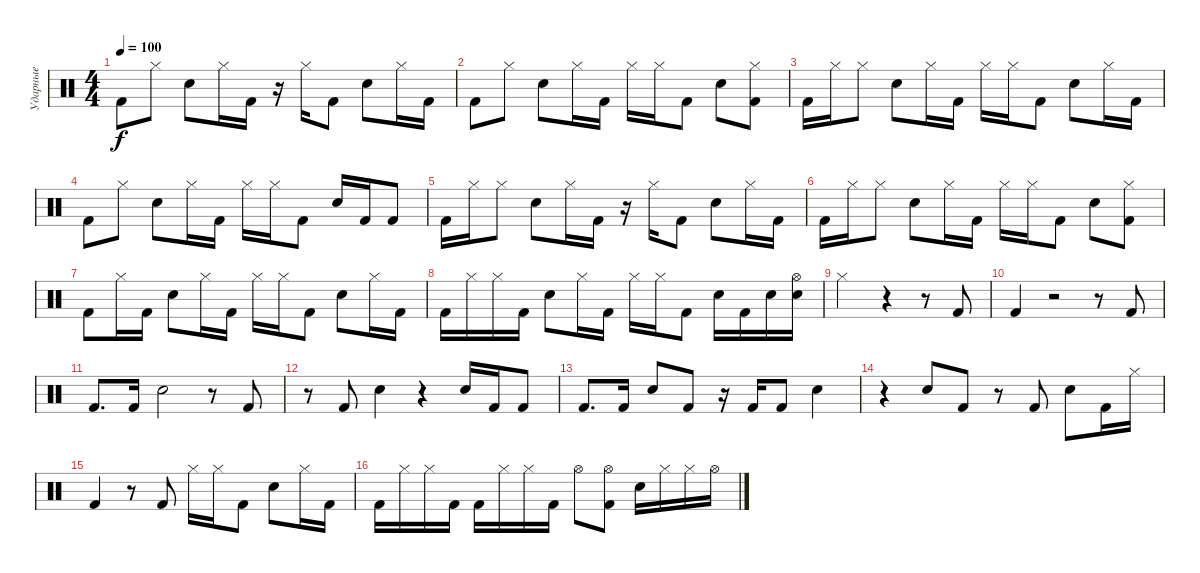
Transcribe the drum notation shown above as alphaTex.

\track ("Ударные" "Ударные") {instrument percussion}
\staff {score}
\articulation defaults
\ts (4 4)
\tempo 100
\clef neutral
\ks c "Kick (hit) 2".8{dy f} "Hi-Hat (closed)".8 "Electric Snare (hit)".8 "Hi-Hat (closed)".16 "Kick (hit) 2".16
r.16 "Hi-Hat (closed)".16 "Kick (hit) 2".8 "Electric Snare (hit)".8 "Hi-Hat (closed)".16 "Kick (hit) 2".16 |
"Kick (hit) 2".8 "Hi-Hat (closed)".8 "Electric Snare (hit)".8 "Hi-Hat (closed)".16 "Kick (hit) 2".16 "Hi-Hat (closed)".16 "Hi-Hat (closed)".16 "Kick (hit) 2".8 "Electric Snare (hit)".8 ("Kick (hit) 2" "Hi-Hat (closed)").8 |
"Kick (hit) 2".16 "Hi-Hat (closed)".16 "Hi-Hat (closed)".8 "Electric Snare (hit)".8 "Hi-Hat (closed)".16 "Kick (hit) 2".16 "Hi-Hat (closed)".16 "Hi-Hat (closed)".16 "Kick (hit) 2".8 "Electric Snare (hit)".8 "Hi-Hat (closed)".16 "Kick (hit) 2".16 |
"Kick (hit) 2".8 "Hi-Hat (closed)".8 "Electric Snare (hit)".8 "Hi-Hat (closed)".16 "Kick (hit) 2".16 "Hi-Hat (closed)".16 "Hi-Hat (closed)".16 "Kick (hit) 2".8 "Electric Snare (hit)".16 "Kick (hit) 2".16 "Kick (hit) 2".8 |
"Kick (hit) 2".16 "Hi-Hat (closed)".16 "Hi-Hat (closed)".8 "Electric Snare (hit)".8 "Hi-Hat (closed)".16 "Kick (hit) 2".16 r.16 "Hi-Hat (closed)".16 "Kick (hit) 2".8 "Electric Snare (hit)".8 "Hi-Hat (closed)".16 "Kick (hit) 2".16 |
"Kick (hit) 2".16 "Hi-Hat (closed)".16 "Hi-Hat (closed)".8 "Electric Snare (hit)".8 "Hi-Hat (closed)".16 "Kick (hit) 2".16 "Hi-Hat (closed)".16 "Hi-Hat (closed)".16 "Kick (hit) 2".8 "Electric Snare (hit)".8 ("Kick (hit) 2" "Hi-Hat (closed)").8 |
"Kick (hit) 2".8 "Hi-Hat (closed)".16 "Kick (hit) 2".16 "Electric Snare (hit)".8 "Hi-Hat (closed)".16 "Kick (hit) 2".16 "Hi-Hat (closed)".16 "Hi-Hat (closed)".16 "Kick (hit) 2".8 "Electric Snare (hit)".8 "Hi-Hat (closed)".16 "Kick (hit) 2".16 |
"Kick (hit) 2".16 "Hi-Hat (closed)".16 "Hi-Hat (closed)".16 "Kick (hit) 2".16 "Electric Snare (hit)".8 "Hi-Hat (closed)".16 "Kick (hit) 2".16 "Hi-Hat (closed)".16 "Hi-Hat (closed)".16 "Kick (hit) 2".8 "Electric Snare (hit)".16 "Kick (hit) 2".16 "Electric Snare (hit)".16 ("Hi-Hat (open)" "Electric Snare (hit)").16 |
"Hi-Hat (closed)".2 r.4 r.8 "Kick (hit) 2".8 |
"Kick (hit) 2".4 r.2 r.8 "Kick (hit) 2".8 |
"Kick (hit) 2".8{d} "Kick (hit) 2".16 "Electric Snare (hit)".2 r.8 "Kick (hit) 2".8 |
r.8 "Kick (hit) 2".8 "Electric Snare (hit)".4 r.4 "Electric Snare (hit)".16 "Kick (hit) 2".16 "Kick (hit) 2".8 |
"Kick (hit) 2".8{d} "Kick (hit) 2".16 "Electric Snare (hit)".8 "Kick (hit) 2".8 r.16 "Kick (hit) 2".16 "Kick (hit) 2".8 "Electric Snare (hit)".4 |
r.4 "Electric Snare (hit)".8 "Kick (hit) 2".8 r.8 "Kick (hit) 2".8 "Electric Snare (hit)".8 "Kick (hit) 2".16 "Hi-Hat (closed)".16 |
"Kick (hit) 2".4 r.8 "Kick (hit) 2".8 "Hi-Hat (closed)".16 "Hi-Hat (closed)".16 "Kick (hit) 2".8 "Electric Snare (hit)".8 "Hi-Hat (closed)".16 "Kick (hit) 2".16 |
"Kick (hit) 2".16 "Hi-Hat (closed)".16 "Hi-Hat (closed)".16 "Kick (hit) 2".16 "Kick (hit) 2".16 "Hi-Hat (closed)".16 "Hi-Hat (closed)".16 "Kick (hit) 2".16 "Hi-Hat (open)".8 ("Kick (hit) 2" "Hi-Hat (open)").8 "Electric Snare (hit)".16 "Hi-Hat (closed)".16 "Hi-Hat (closed)".16 "Hi-Hat (open)".16
